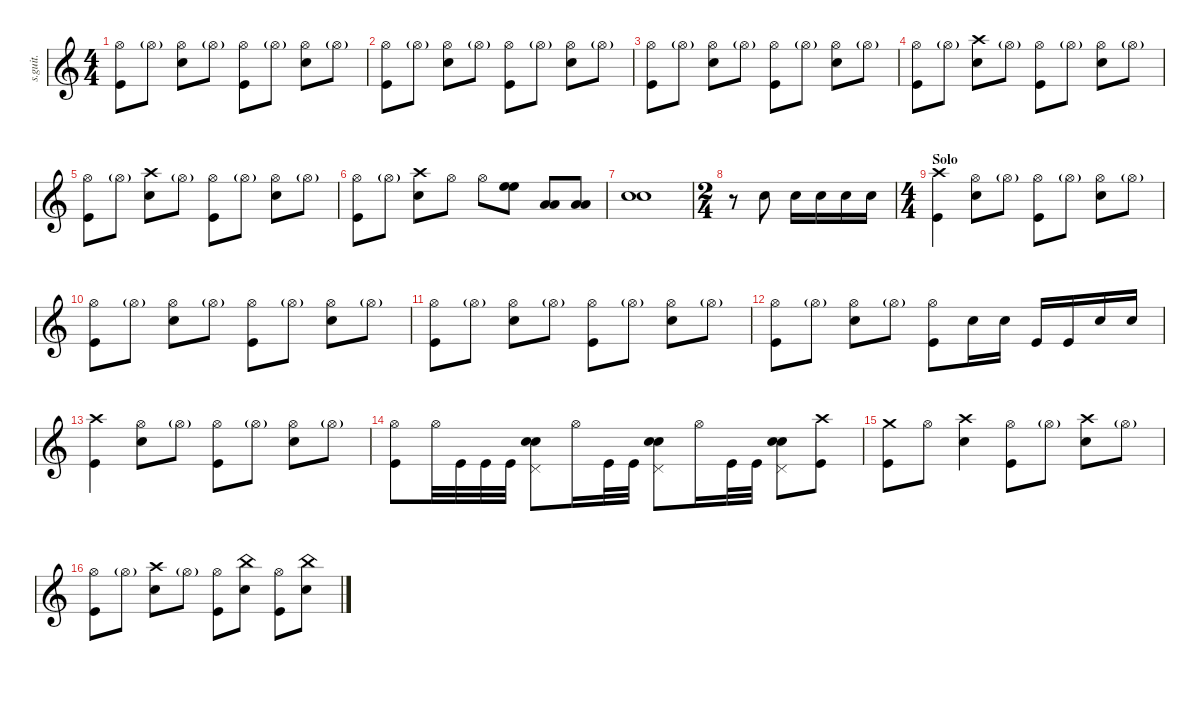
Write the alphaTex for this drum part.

\defaultSystemsLayout 4
\hideDynamics
\bracketExtendMode nobrackets
\track ("Lars Ulrich" "s.guit.") {instrument percussion}
\staff {score}
\articulation defaults
\ts (4 4)
\tempo (89 hide)
\clef g2
\ks c
("Hi-Hat (open)" "Kick (hit)").8{lyrics (0 "") lyrics (1 "") lyrics (2 "") lyrics (3 "") lyrics (4 "") dy f} "Hi-Hat (open)"{g}.8{lyrics (0 "") lyrics (1 "") lyrics (2 "") lyrics (3 "") lyrics (4 "") dy p} ("Hi-Hat (open)" "Snare (hit) 2").8{lyrics (0 "") lyrics (1 "") lyrics (2 "") lyrics (3 "") lyrics (4 "") dy f} "Hi-Hat (open)"{g}.8{lyrics (0 "") lyrics (1 "") lyrics (2 "") lyrics (3 "") lyrics (4 "") dy p} ("Hi-Hat (open)" "Kick (hit)").8{lyrics (0 "") lyrics (1 "") lyrics (2 "") lyrics (3 "") lyrics (4 "") dy f} "Hi-Hat (open)"{g}.8{lyrics (0 "") lyrics (1 "") lyrics (2 "") lyrics (3 "") lyrics (4 "") dy p} ("Hi-Hat (open)" "Snare (hit) 2").8{lyrics (0 "") lyrics (1 "") lyrics (2 "") lyrics (3 "") lyrics (4 "") dy f} "Hi-Hat (open)"{g}.8{lyrics (0 "") lyrics (1 "") lyrics (2 "") lyrics (3 "") lyrics (4 "") dy p} |
("Hi-Hat (open)" "Kick (hit)").8{lyrics (0 "") lyrics (1 "") lyrics (2 "") lyrics (3 "") lyrics (4 "") dy f} "Hi-Hat (open)"{g}.8{lyrics (0 "") lyrics (1 "") lyrics (2 "") lyrics (3 "") lyrics (4 "") dy p} ("Hi-Hat (open)" "Snare (hit) 2").8{lyrics (0 "") lyrics (1 "") lyrics (2 "") lyrics (3 "") lyrics (4 "") dy f} "Hi-Hat (open)"{g}.8{lyrics (0 "") lyrics (1 "") lyrics (2 "") lyrics (3 "") lyrics (4 "") dy p} ("Hi-Hat (open)" "Kick (hit)").8{lyrics (0 "") lyrics (1 "") lyrics (2 "") lyrics (3 "") lyrics (4 "") dy f} "Hi-Hat (open)"{g}.8{lyrics (0 "") lyrics (1 "") lyrics (2 "") lyrics (3 "") lyrics (4 "") dy p} ("Hi-Hat (open)" "Snare (hit) 2").8{lyrics (0 "") lyrics (1 "") lyrics (2 "") lyrics (3 "") lyrics (4 "") dy f} "Hi-Hat (open)"{g}.8{lyrics (0 "") lyrics (1 "") lyrics (2 "") lyrics (3 "") lyrics (4 "") dy p} |
\tempo (90 hide)
("Hi-Hat (open)" "Kick (hit)").8{lyrics (0 "") lyrics (1 "") lyrics (2 "") lyrics (3 "") lyrics (4 "") dy f} "Hi-Hat (open)"{g}.8{lyrics (0 "") lyrics (1 "") lyrics (2 "") lyrics (3 "") lyrics (4 "") dy p} ("Hi-Hat (open)" "Snare (hit) 2").8{lyrics (0 "") lyrics (1 "") lyrics (2 "") lyrics (3 "") lyrics (4 "") dy f} "Hi-Hat (open)"{g}.8{lyrics (0 "") lyrics (1 "") lyrics (2 "") lyrics (3 "") lyrics (4 "") dy p} ("Hi-Hat (open)" "Kick (hit)").8{lyrics (0 "") lyrics (1 "") lyrics (2 "") lyrics (3 "") lyrics (4 "") dy f} "Hi-Hat (open)"{g}.8{lyrics (0 "") lyrics (1 "") lyrics (2 "") lyrics (3 "") lyrics (4 "") dy p} ("Hi-Hat (open)" "Snare (hit) 2").8{lyrics (0 "") lyrics (1 "") lyrics (2 "") lyrics (3 "") lyrics (4 "") dy f} "Hi-Hat (open)"{g}.8{lyrics (0 "") lyrics (1 "") lyrics (2 "") lyrics (3 "") lyrics (4 "") dy p} |
\tempo (89 hide)
("Hi-Hat (open)" "Kick (hit)").8{lyrics (0 "") lyrics (1 "") lyrics (2 "") lyrics (3 "") lyrics (4 "") dy f} "Hi-Hat (open)"{g}.8{lyrics (0 "") lyrics (1 "") lyrics (2 "") lyrics (3 "") lyrics (4 "") dy p} ("Crash high (hit)" "Snare (hit) 2").8{lyrics (0 "") lyrics (1 "") lyrics (2 "") lyrics (3 "") lyrics (4 "") dy f} "Hi-Hat (open)"{g}.8{lyrics (0 "") lyrics (1 "") lyrics (2 "") lyrics (3 "") lyrics (4 "") dy p} ("Hi-Hat (open)" "Kick (hit)").8{lyrics (0 "") lyrics (1 "") lyrics (2 "") lyrics (3 "") lyrics (4 "") dy f} "Hi-Hat (open)"{g}.8{lyrics (0 "") lyrics (1 "") lyrics (2 "") lyrics (3 "") lyrics (4 "") dy p} ("Hi-Hat (open)" "Snare (hit) 2").8{lyrics (0 "") lyrics (1 "") lyrics (2 "") lyrics (3 "") lyrics (4 "") dy f} "Hi-Hat (open)"{g}.8{lyrics (0 "") lyrics (1 "") lyrics (2 "") lyrics (3 "") lyrics (4 "") dy p} |
("Hi-Hat (open)" "Kick (hit)").8{lyrics (0 "") lyrics (1 "") lyrics (2 "") lyrics (3 "") lyrics (4 "") dy f} "Hi-Hat (open)"{g}.8{lyrics (0 "") lyrics (1 "") lyrics (2 "") lyrics (3 "") lyrics (4 "") dy p} ("Crash high (hit)" "Snare (hit) 2").8{lyrics (0 "") lyrics (1 "") lyrics (2 "") lyrics (3 "") lyrics (4 "") dy f} "Hi-Hat (open)"{g}.8{lyrics (0 "") lyrics (1 "") lyrics (2 "") lyrics (3 "") lyrics (4 "") dy p} ("Hi-Hat (open)" "Kick (hit)").8{lyrics (0 "") lyrics (1 "") lyrics (2 "") lyrics (3 "") lyrics (4 "") dy f} "Hi-Hat (open)"{g}.8{lyrics (0 "") lyrics (1 "") lyrics (2 "") lyrics (3 "") lyrics (4 "") dy p} ("Hi-Hat (open)" "Snare (hit) 2").8{lyrics (0 "") lyrics (1 "") lyrics (2 "") lyrics (3 "") lyrics (4 "") dy f} "Hi-Hat (open)"{g}.8{lyrics (0 "") lyrics (1 "") lyrics (2 "") lyrics (3 "") lyrics (4 "") dy p} |
\tempo (88 hide)
("Hi-Hat (open)" "Kick (hit)").8{lyrics (0 "") lyrics (1 "") lyrics (2 "") lyrics (3 "") lyrics (4 "") dy f} "Hi-Hat (open)"{g}.8{lyrics (0 "") lyrics (1 "") lyrics (2 "") lyrics (3 "") lyrics (4 "") dy p} ("Crash high (hit)" "Snare (hit) 2").8{lyrics (0 "") lyrics (1 "") lyrics (2 "") lyrics (3 "") lyrics (4 "") dy f} "Hi-Hat (open)".8{lyrics (0 "") lyrics (1 "") lyrics (2 "") lyrics (3 "") lyrics (4 "")} "Hi-Hat (open)".8{lyrics (0 "") lyrics (1 "") lyrics (2 "") lyrics (3 "") lyrics (4 "")} ("High Floor Tom (hit)" "High Floor Tom (hit)").8{lyrics (0 "") lyrics (1 "") lyrics (2 "") lyrics (3 "") lyrics (4 "") dy ff} ("Low Tom (hit)" "Low Tom (hit)").8{lyrics (0 "") lyrics (1 "") lyrics (2 "") lyrics (3 "") lyrics (4 "")} ("Low Floor Tom (hit)" "Low Floor Tom (hit)").8{lyrics (0 "") lyrics (1 "") lyrics (2 "") lyrics (3 "") lyrics (4 "")} |
\tempo (90 hide)
("Snare (hit) 2" "Snare (hit) 2").1{lyrics (0 "") lyrics (1 "") lyrics (2 "") lyrics (3 "") lyrics (4 "") dy f} |
\ts (2 4)
\beaming (8 2 2 2 2)
r.8 "Snare (hit) 2".8{lyrics (0 "") lyrics (1 "") lyrics (2 "") lyrics (3 "") lyrics (4 "")} "Snare (hit) 2".16{lyrics (0 "") lyrics (1 "") lyrics (2 "") lyrics (3 "") lyrics (4 "")} "Snare (hit) 2".16{lyrics (0 "") lyrics (1 "") lyrics (2 "") lyrics (3 "") lyrics (4 "")} "Snare (hit) 2".16{lyrics (0 "") lyrics (1 "") lyrics (2 "") lyrics (3 "") lyrics (4 "")} "Snare (hit) 2".16{lyrics (0 "") lyrics (1 "") lyrics (2 "") lyrics (3 "") lyrics (4 "")} |
\ts (4 4)
\beaming (8 2 2 2 2)
\section ("" "Solo")
\tempo (87 hide)
("Crash high (hit)" "Kick (hit)").4{lyrics (0 "") lyrics (1 "") lyrics (2 "") lyrics (3 "") lyrics (4 "")} ("Hi-Hat (open)" "Snare (hit) 2").8{lyrics (0 "") lyrics (1 "") lyrics (2 "") lyrics (3 "") lyrics (4 "")} "Hi-Hat (open)"{g}.8{lyrics (0 "") lyrics (1 "") lyrics (2 "") lyrics (3 "") lyrics (4 "") dy p} ("Hi-Hat (open)" "Kick (hit)").8{lyrics (0 "") lyrics (1 "") lyrics (2 "") lyrics (3 "") lyrics (4 "") dy f} "Hi-Hat (open)"{g}.8{lyrics (0 "") lyrics (1 "") lyrics (2 "") lyrics (3 "") lyrics (4 "") dy p} ("Hi-Hat (open)" "Snare (hit) 2").8{lyrics (0 "") lyrics (1 "") lyrics (2 "") lyrics (3 "") lyrics (4 "") dy f} "Hi-Hat (open)"{g}.8{lyrics (0 "") lyrics (1 "") lyrics (2 "") lyrics (3 "") lyrics (4 "") dy p} |
\tempo (89 hide)
("Hi-Hat (open)" "Kick (hit)").8{lyrics (0 "") lyrics (1 "") lyrics (2 "") lyrics (3 "") lyrics (4 "") dy f} "Hi-Hat (open)"{g}.8{lyrics (0 "") lyrics (1 "") lyrics (2 "") lyrics (3 "") lyrics (4 "") dy p} ("Hi-Hat (open)" "Snare (hit) 2").8{lyrics (0 "") lyrics (1 "") lyrics (2 "") lyrics (3 "") lyrics (4 "") dy f} "Hi-Hat (open)"{g}.8{lyrics (0 "") lyrics (1 "") lyrics (2 "") lyrics (3 "") lyrics (4 "") dy p} ("Hi-Hat (open)" "Kick (hit)").8{lyrics (0 "") lyrics (1 "") lyrics (2 "") lyrics (3 "") lyrics (4 "") dy f} "Hi-Hat (open)"{g}.8{lyrics (0 "") lyrics (1 "") lyrics (2 "") lyrics (3 "") lyrics (4 "") dy p} ("Hi-Hat (open)" "Snare (hit) 2").8{lyrics (0 "") lyrics (1 "") lyrics (2 "") lyrics (3 "") lyrics (4 "") dy f} "Hi-Hat (open)"{g}.8{lyrics (0 "") lyrics (1 "") lyrics (2 "") lyrics (3 "") lyrics (4 "") dy p} |
("Hi-Hat (open)" "Kick (hit)").8{lyrics (0 "") lyrics (1 "") lyrics (2 "") lyrics (3 "") lyrics (4 "") dy f} "Hi-Hat (open)"{g}.8{lyrics (0 "") lyrics (1 "") lyrics (2 "") lyrics (3 "") lyrics (4 "") dy p} ("Hi-Hat (open)" "Snare (hit) 2").8{lyrics (0 "") lyrics (1 "") lyrics (2 "") lyrics (3 "") lyrics (4 "") dy f} "Hi-Hat (open)"{g}.8{lyrics (0 "") lyrics (1 "") lyrics (2 "") lyrics (3 "") lyrics (4 "") dy p} ("Hi-Hat (open)" "Kick (hit)").8{lyrics (0 "") lyrics (1 "") lyrics (2 "") lyrics (3 "") lyrics (4 "") dy f} "Hi-Hat (open)"{g}.8{lyrics (0 "") lyrics (1 "") lyrics (2 "") lyrics (3 "") lyrics (4 "") dy p} ("Hi-Hat (open)" "Snare (hit) 2").8{lyrics (0 "") lyrics (1 "") lyrics (2 "") lyrics (3 "") lyrics (4 "") dy f} "Hi-Hat (open)"{g}.8{lyrics (0 "") lyrics (1 "") lyrics (2 "") lyrics (3 "") lyrics (4 "") dy p} |
\tempo (90 hide)
("Hi-Hat (open)" "Kick (hit)").8{lyrics (0 "") lyrics (1 "") lyrics (2 "") lyrics (3 "") lyrics (4 "") dy f} "Hi-Hat (open)"{g}.8{lyrics (0 "") lyrics (1 "") lyrics (2 "") lyrics (3 "") lyrics (4 "") dy p} ("Hi-Hat (open)" "Snare (hit) 2").8{lyrics (0 "") lyrics (1 "") lyrics (2 "") lyrics (3 "") lyrics (4 "") dy f} "Hi-Hat (open)"{g}.8{lyrics (0 "") lyrics (1 "") lyrics (2 "") lyrics (3 "") lyrics (4 "") dy p} ("Hi-Hat (open)" "Kick (hit)").8{lyrics (0 "") lyrics (1 "") lyrics (2 "") lyrics (3 "") lyrics (4 "") dy f} "Snare (hit) 2".16{lyrics (0 "") lyrics (1 "") lyrics (2 "") lyrics (3 "") lyrics (4 "")} "Snare (hit) 2".16{lyrics (0 "") lyrics (1 "") lyrics (2 "") lyrics (3 "") lyrics (4 "")} "Kick (hit)".16{lyrics (0 "") lyrics (1 "") lyrics (2 "") lyrics (3 "") lyrics (4 "")} "Kick (hit)".16{lyrics (0 "") lyrics (1 "") lyrics (2 "") lyrics (3 "") lyrics (4 "")} "Snare (hit) 2".16{lyrics (0 "") lyrics (1 "") lyrics (2 "") lyrics (3 "") lyrics (4 "")} "Snare (hit) 2".16{lyrics (0 "") lyrics (1 "") lyrics (2 "") lyrics (3 "") lyrics (4 "")} |
\tempo (87 hide)
("Crash high (hit)" "Kick (hit)").4{lyrics (0 "") lyrics (1 "") lyrics (2 "") lyrics (3 "") lyrics (4 "")} ("Hi-Hat (open)" "Snare (hit) 2").8{lyrics (0 "") lyrics (1 "") lyrics (2 "") lyrics (3 "") lyrics (4 "")} "Hi-Hat (open)"{g}.8{lyrics (0 "") lyrics (1 "") lyrics (2 "") lyrics (3 "") lyrics (4 "") dy p} ("Hi-Hat (open)" "Kick (hit)").8{lyrics (0 "") lyrics (1 "") lyrics (2 "") lyrics (3 "") lyrics (4 "") dy f} "Hi-Hat (open)"{g}.8{lyrics (0 "") lyrics (1 "") lyrics (2 "") lyrics (3 "") lyrics (4 "") dy p} ("Hi-Hat (open)" "Snare (hit) 2").8{lyrics (0 "") lyrics (1 "") lyrics (2 "") lyrics (3 "") lyrics (4 "") dy f} "Hi-Hat (open)"{g}.8{lyrics (0 "") lyrics (1 "") lyrics (2 "") lyrics (3 "") lyrics (4 "") dy p} |
\tempo (89 hide)
("Hi-Hat (open)" "Kick (hit)").8{lyrics (0 "") lyrics (1 "") lyrics (2 "") lyrics (3 "") lyrics (4 "") dy f} "Hi-Hat (open)".32{lyrics (0 "") lyrics (1 "") lyrics (2 "") lyrics (3 "") lyrics (4 "")} "Kick (hit)".32{lyrics (0 "") lyrics (1 "") lyrics (2 "") lyrics (3 "") lyrics (4 "")} "Kick (hit)".32{lyrics (0 "") lyrics (1 "") lyrics (2 "") lyrics (3 "") lyrics (4 "")} "Kick (hit)".32{lyrics (0 "") lyrics (1 "") lyrics (2 "") lyrics (3 "") lyrics (4 "")} ("Pedal Hi-Hat (hit)" "Snare (hit) 2" "Snare (hit) 2").8{lyrics (0 "") lyrics (1 "") lyrics (2 "") lyrics (3 "") lyrics (4 "")} "Hi-Hat (open)".16{lyrics (0 "") lyrics (1 "") lyrics (2 "") lyrics (3 "") lyrics (4 "")} "Kick (hit)".32{lyrics (0 "") lyrics (1 "") lyrics (2 "") lyrics (3 "") lyrics (4 "")} "Kick (hit)".32{lyrics (0 "") lyrics (1 "") lyrics (2 "") lyrics (3 "") lyrics (4 "")} ("Pedal Hi-Hat (hit)" "Snare (hit) 2" "Snare (hit) 2").8{lyrics (0 "") lyrics (1 "") lyrics (2 "") lyrics (3 "") lyrics (4 "")} "Hi-Hat (open)".16{lyrics (0 "") lyrics (1 "") lyrics (2 "") lyrics (3 "") lyrics (4 "")} "Kick (hit)".32{lyrics (0 "") lyrics (1 "") lyrics (2 "") lyrics (3 "") lyrics (4 "")} "Kick (hit)".32{lyrics (0 "") lyrics (1 "") lyrics (2 "") lyrics (3 "") lyrics (4 "")} ("Pedal Hi-Hat (hit)" "Snare (hit) 2" "Snare (hit) 2").8{lyrics (0 "") lyrics (1 "") lyrics (2 "") lyrics (3 "") lyrics (4 "")} ("Crash high (hit)" "Kick (hit)").8{lyrics (0 "") lyrics (1 "") lyrics (2 "") lyrics (3 "") lyrics (4 "")} |
\tempo (88 hide)
("Crash medium (hit)" "Kick (hit)").8{lyrics (0 "") lyrics (1 "") lyrics (2 "") lyrics (3 "") lyrics (4 "")} "Hi-Hat (open)".8{lyrics (0 "") lyrics (1 "") lyrics (2 "") lyrics (3 "") lyrics (4 "")} ("Crash high (hit)" "Snare (hit) 2").4{lyrics (0 "") lyrics (1 "") lyrics (2 "") lyrics (3 "") lyrics (4 "")} ("Hi-Hat (open)" "Kick (hit)").8{lyrics (0 "") lyrics (1 "") lyrics (2 "") lyrics (3 "") lyrics (4 "")} "Hi-Hat (open)"{g}.8{lyrics (0 "") lyrics (1 "") lyrics (2 "") lyrics (3 "") lyrics (4 "") dy p} ("Crash high (hit)" "Snare (hit) 2").8{lyrics (0 "") lyrics (1 "") lyrics (2 "") lyrics (3 "") lyrics (4 "") dy f} "Hi-Hat (open)"{g}.8{lyrics (0 "") lyrics (1 "") lyrics (2 "") lyrics (3 "") lyrics (4 "") dy p} |
\tempo (90 hide)
("Hi-Hat (open)" "Kick (hit)").8{lyrics (0 "") lyrics (1 "") lyrics (2 "") lyrics (3 "") lyrics (4 "") dy f} "Hi-Hat (open)"{g}.8{lyrics (0 "") lyrics (1 "") lyrics (2 "") lyrics (3 "") lyrics (4 "") dy p} ("Crash high (hit)" "Snare (hit) 2").8{lyrics (0 "") lyrics (1 "") lyrics (2 "") lyrics (3 "") lyrics (4 "") dy f} "Hi-Hat (open)"{g}.8{lyrics (0 "") lyrics (1 "") lyrics (2 "") lyrics (3 "") lyrics (4 "") dy p} ("Hi-Hat (open)" "Kick (hit)").8{lyrics (0 "") lyrics (1 "") lyrics (2 "") lyrics (3 "") lyrics (4 "") dy f} ("China (hit)" "Snare (hit) 2").8{lyrics (0 "") lyrics (1 "") lyrics (2 "") lyrics (3 "") lyrics (4 "")} ("Hi-Hat (open)" "Kick (hit)").8{lyrics (0 "") lyrics (1 "") lyrics (2 "") lyrics (3 "") lyrics (4 "")} ("China (hit)" "Snare (hit) 2").8{lyrics (0 "") lyrics (1 "") lyrics (2 "") lyrics (3 "") lyrics (4 "")}
